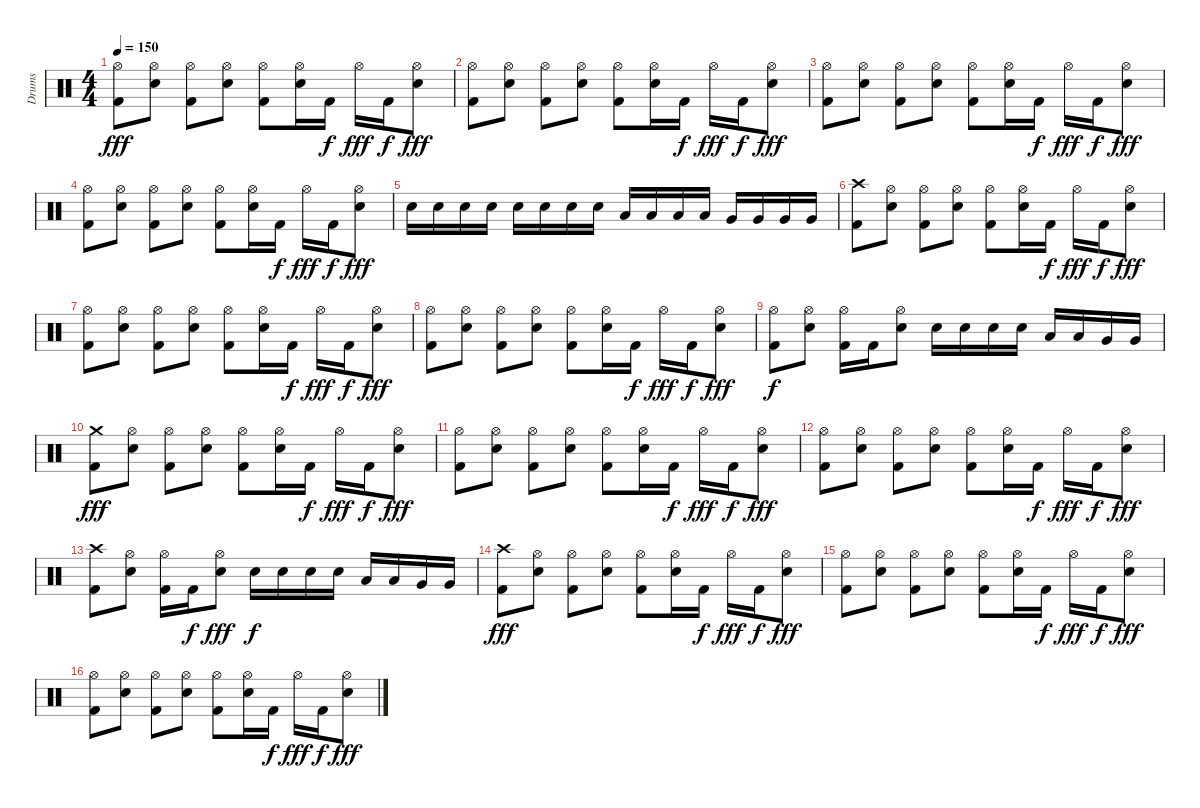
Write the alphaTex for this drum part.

\track ("Drums" "Drums") {instrument percussion}
\staff {score}
\articulation defaults
\ts (4 4)
\tempo 150
\clef neutral
\ks c
("Hi-Hat (open)" "Kick (hit) 2").8{dy fff} ("Hi-Hat (open)" "Electric Snare (hit)").8 ("Hi-Hat (open)" "Kick (hit) 2").8 ("Hi-Hat (open)" "Electric Snare (hit)").8 ("Hi-Hat (open)" "Kick (hit) 2").8 ("Hi-Hat (open)" "Electric Snare (hit)").16 "Kick (hit) 2".16{dy f} "Hi-Hat (open)".16{dy fff} "Kick (hit) 2".16{dy f} ("Hi-Hat (open)" "Electric Snare (hit)").8{dy fff} |
("Hi-Hat (open)" "Kick (hit) 2").8 ("Hi-Hat (open)" "Electric Snare (hit)").8 ("Hi-Hat (open)" "Kick (hit) 2").8 ("Hi-Hat (open)" "Electric Snare (hit)").8 ("Hi-Hat (open)" "Kick (hit) 2").8 ("Hi-Hat (open)" "Electric Snare (hit)").16 "Kick (hit) 2".16{dy f} "Hi-Hat (open)".16{dy fff} "Kick (hit) 2".16{dy f} ("Hi-Hat (open)" "Electric Snare (hit)").8{dy fff} |
("Hi-Hat (open)" "Kick (hit) 2").8 ("Hi-Hat (open)" "Electric Snare (hit)").8 ("Hi-Hat (open)" "Kick (hit) 2").8 ("Hi-Hat (open)" "Electric Snare (hit)").8 ("Hi-Hat (open)" "Kick (hit) 2").8 ("Hi-Hat (open)" "Electric Snare (hit)").16 "Kick (hit) 2".16{dy f} "Hi-Hat (open)".16{dy fff} "Kick (hit) 2".16{dy f} ("Hi-Hat (open)" "Electric Snare (hit)").8{dy fff} |
("Hi-Hat (open)" "Kick (hit) 2").8 ("Hi-Hat (open)" "Electric Snare (hit)").8 ("Hi-Hat (open)" "Kick (hit) 2").8 ("Hi-Hat (open)" "Electric Snare (hit)").8 ("Hi-Hat (open)" "Kick (hit) 2").8 ("Hi-Hat (open)" "Electric Snare (hit)").16 "Kick (hit) 2".16{dy f} "Hi-Hat (open)".16{dy fff} "Kick (hit) 2".16{dy f} ("Hi-Hat (open)" "Electric Snare (hit)").8{dy fff} |
"Electric Snare (hit)".16 "Electric Snare (hit)".16 "Electric Snare (hit)".16 "Electric Snare (hit)".16 "Electric Snare (hit)".16 "Electric Snare (hit)".16 "Electric Snare (hit)".16 "Electric Snare (hit)".16 "Low Tom (hit)".16 "Low Tom (hit)".16 "Low Tom (hit)".16 "Low Tom (hit)".16 "Very Low Tom (hit)".16 "Very Low Tom (hit)".16 "Very Low Tom (hit)".16 "Very Low Tom (hit)".16 |
("Crash high (hit)" "Kick (hit) 2").8 ("Hi-Hat (open)" "Electric Snare (hit)").8 ("Hi-Hat (open)" "Kick (hit) 2").8 ("Hi-Hat (open)" "Electric Snare (hit)").8 ("Hi-Hat (open)" "Kick (hit) 2").8 ("Hi-Hat (open)" "Electric Snare (hit)").16 "Kick (hit) 2".16{dy f} "Hi-Hat (open)".16{dy fff} "Kick (hit) 2".16{dy f} ("Hi-Hat (open)" "Electric Snare (hit)").8{dy fff} |
("Hi-Hat (open)" "Kick (hit) 2").8 ("Hi-Hat (open)" "Electric Snare (hit)").8 ("Hi-Hat (open)" "Kick (hit) 2").8 ("Hi-Hat (open)" "Electric Snare (hit)").8 ("Hi-Hat (open)" "Kick (hit) 2").8 ("Hi-Hat (open)" "Electric Snare (hit)").16 "Kick (hit) 2".16{dy f} "Hi-Hat (open)".16{dy fff} "Kick (hit) 2".16{dy f} ("Hi-Hat (open)" "Electric Snare (hit)").8{dy fff} |
("Hi-Hat (open)" "Kick (hit) 2").8 ("Hi-Hat (open)" "Electric Snare (hit)").8 ("Hi-Hat (open)" "Kick (hit) 2").8 ("Hi-Hat (open)" "Electric Snare (hit)").8 ("Hi-Hat (open)" "Kick (hit) 2").8 ("Hi-Hat (open)" "Electric Snare (hit)").16 "Kick (hit) 2".16{dy f} "Hi-Hat (open)".16{dy fff} "Kick (hit) 2".16{dy f} ("Hi-Hat (open)" "Electric Snare (hit)").8{dy fff} |
("Hi-Hat (open)" "Kick (hit) 2").8{dy f} ("Hi-Hat (open)" "Electric Snare (hit)").8 ("Hi-Hat (open)" "Kick (hit) 2").16 "Kick (hit) 2".16 ("Hi-Hat (open)" "Electric Snare (hit)").8 "Electric Snare (hit)".16 "Electric Snare (hit)".16 "Electric Snare (hit)".16 "Electric Snare (hit)".16 "Low Tom (hit)".16 "Low Tom (hit)".16 "Very Low Tom (hit)".16 "Very Low Tom (hit)".16 |
("Crash medium (hit)" "Kick (hit) 2").8{dy fff} ("Hi-Hat (open)" "Electric Snare (hit)").8 ("Hi-Hat (open)" "Kick (hit) 2").8 ("Hi-Hat (open)" "Electric Snare (hit)").8 ("Hi-Hat (open)" "Kick (hit) 2").8 ("Hi-Hat (open)" "Electric Snare (hit)").16 "Kick (hit) 2".16{dy f} "Hi-Hat (open)".16{dy fff} "Kick (hit) 2".16{dy f} ("Hi-Hat (open)" "Electric Snare (hit)").8{dy fff} |
("Hi-Hat (open)" "Kick (hit) 2").8 ("Hi-Hat (open)" "Electric Snare (hit)").8 ("Hi-Hat (open)" "Kick (hit) 2").8 ("Hi-Hat (open)" "Electric Snare (hit)").8 ("Hi-Hat (open)" "Kick (hit) 2").8 ("Hi-Hat (open)" "Electric Snare (hit)").16 "Kick (hit) 2".16{dy f} "Hi-Hat (open)".16{dy fff} "Kick (hit) 2".16{dy f} ("Hi-Hat (open)" "Electric Snare (hit)").8{dy fff} |
("Hi-Hat (open)" "Kick (hit) 2").8 ("Hi-Hat (open)" "Electric Snare (hit)").8 ("Hi-Hat (open)" "Kick (hit) 2").8 ("Hi-Hat (open)" "Electric Snare (hit)").8 ("Hi-Hat (open)" "Kick (hit) 2").8 ("Hi-Hat (open)" "Electric Snare (hit)").16 "Kick (hit) 2".16{dy f} "Hi-Hat (open)".16{dy fff} "Kick (hit) 2".16{dy f} ("Hi-Hat (open)" "Electric Snare (hit)").8{dy fff} |
("Crash high (hit)" "Kick (hit) 2").8 ("Hi-Hat (open)" "Electric Snare (hit)").8 ("Hi-Hat (open)" "Kick (hit) 2").16 "Kick (hit) 2".16{dy f} ("Hi-Hat (open)" "Electric Snare (hit)").8{dy fff} "Electric Snare (hit)".16{dy f} "Electric Snare (hit)".16 "Electric Snare (hit)".16 "Electric Snare (hit)".16 "Low Tom (hit)".16 "Low Tom (hit)".16 "Very Low Tom (hit)".16 "Very Low Tom (hit)".16 |
("Crash high (hit)" "Kick (hit) 2").8{dy fff} ("Hi-Hat (open)" "Electric Snare (hit)").8 ("Hi-Hat (open)" "Kick (hit) 2").8 ("Hi-Hat (open)" "Electric Snare (hit)").8 ("Hi-Hat (open)" "Kick (hit) 2").8 ("Hi-Hat (open)" "Electric Snare (hit)").16 "Kick (hit) 2".16{dy f} "Hi-Hat (open)".16{dy fff} "Kick (hit) 2".16{dy f} ("Hi-Hat (open)" "Electric Snare (hit)").8{dy fff} |
("Hi-Hat (open)" "Kick (hit) 2").8 ("Hi-Hat (open)" "Electric Snare (hit)").8 ("Hi-Hat (open)" "Kick (hit) 2").8 ("Hi-Hat (open)" "Electric Snare (hit)").8 ("Hi-Hat (open)" "Kick (hit) 2").8 ("Hi-Hat (open)" "Electric Snare (hit)").16 "Kick (hit) 2".16{dy f} "Hi-Hat (open)".16{dy fff} "Kick (hit) 2".16{dy f} ("Hi-Hat (open)" "Electric Snare (hit)").8{dy fff} |
("Hi-Hat (open)" "Kick (hit) 2").8 ("Hi-Hat (open)" "Electric Snare (hit)").8 ("Hi-Hat (open)" "Kick (hit) 2").8 ("Hi-Hat (open)" "Electric Snare (hit)").8 ("Hi-Hat (open)" "Kick (hit) 2").8 ("Hi-Hat (open)" "Electric Snare (hit)").16 "Kick (hit) 2".16{dy f} "Hi-Hat (open)".16{dy fff} "Kick (hit) 2".16{dy f} ("Hi-Hat (open)" "Electric Snare (hit)").8{dy fff}
